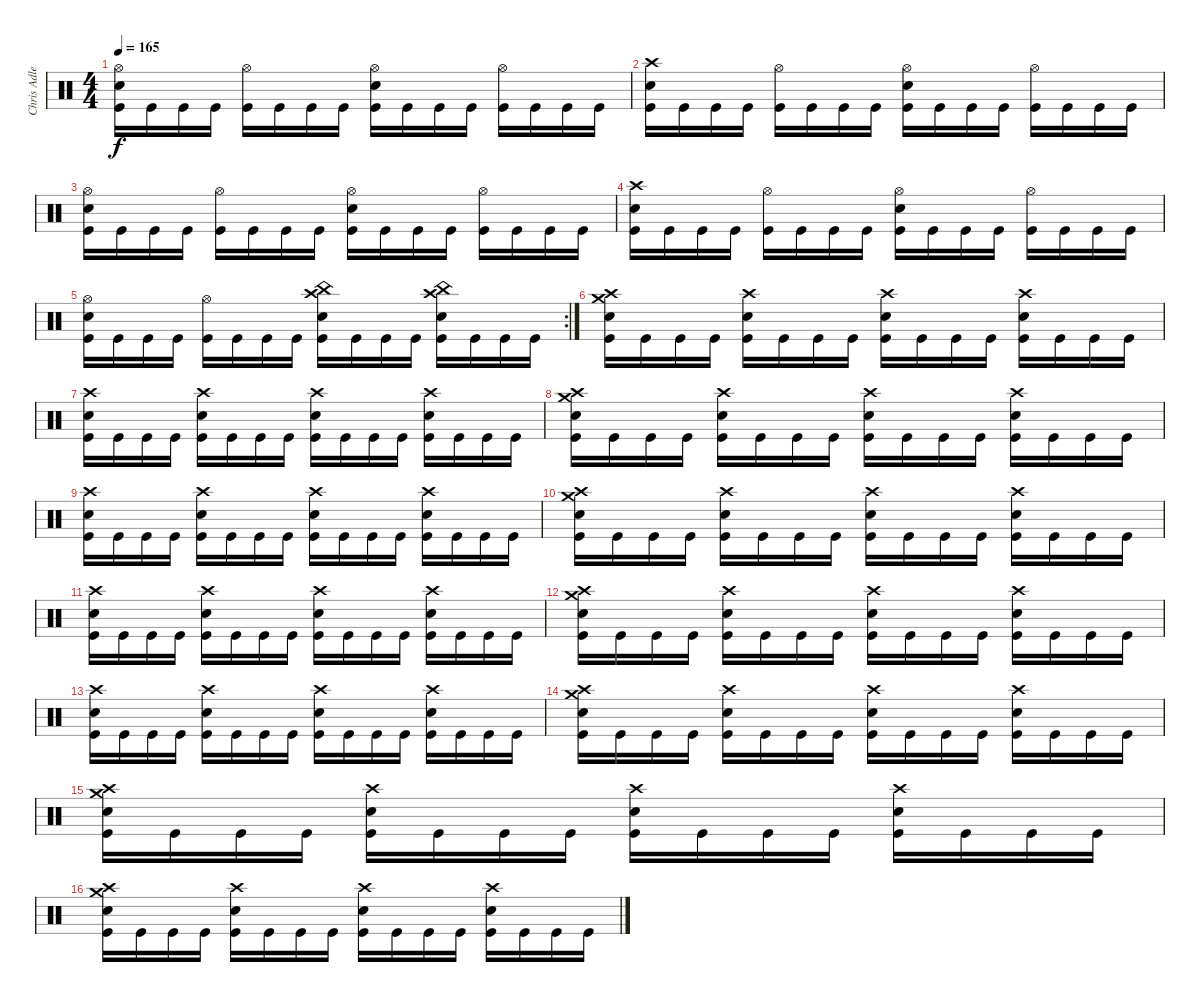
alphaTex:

\track ("Chris Adler" "Chris Adle") {instrument percussion}
\staff {score}
\articulation defaults
\ts (4 4)
\tempo 165
\clef neutral
\ks c
("Hi-Hat (open)" "Electric Snare (hit)" "Kick (hit)").16{dy f} "Kick (hit)".16 "Kick (hit)".16 "Kick (hit)".16 ("Hi-Hat (open)" "Kick (hit)").16 "Kick (hit)".16 "Kick (hit)".16 "Kick (hit)".16 ("Hi-Hat (open)" "Electric Snare (hit)" "Kick (hit)").16 "Kick (hit)".16 "Kick (hit)".16 "Kick (hit)".16 ("Hi-Hat (open)" "Kick (hit)").16 "Kick (hit)".16 "Kick (hit)".16 "Kick (hit)".16 |
("Crash high (hit)" "Electric Snare (hit)" "Kick (hit)").16 "Kick (hit)".16 "Kick (hit)".16 "Kick (hit)".16 ("Hi-Hat (open)" "Kick (hit)").16 "Kick (hit)".16 "Kick (hit)".16 "Kick (hit)".16 ("Hi-Hat (open)" "Electric Snare (hit)" "Kick (hit)").16 "Kick (hit)".16 "Kick (hit)".16 "Kick (hit)".16 ("Hi-Hat (open)" "Kick (hit)").16 "Kick (hit)".16 "Kick (hit)".16 "Kick (hit)".16 |
("Hi-Hat (open)" "Electric Snare (hit)" "Kick (hit)").16 "Kick (hit)".16 "Kick (hit)".16 "Kick (hit)".16 ("Hi-Hat (open)" "Kick (hit)").16 "Kick (hit)".16 "Kick (hit)".16 "Kick (hit)".16 ("Hi-Hat (open)" "Electric Snare (hit)" "Kick (hit)").16 "Kick (hit)".16 "Kick (hit)".16 "Kick (hit)".16 ("Hi-Hat (open)" "Kick (hit)").16 "Kick (hit)".16 "Kick (hit)".16 "Kick (hit)".16 |
("Crash high (hit)" "Electric Snare (hit)" "Kick (hit)").16 "Kick (hit)".16 "Kick (hit)".16 "Kick (hit)".16 ("Hi-Hat (open)" "Kick (hit)").16 "Kick (hit)".16 "Kick (hit)".16 "Kick (hit)".16 ("Hi-Hat (open)" "Electric Snare (hit)" "Kick (hit)").16 "Kick (hit)".16 "Kick (hit)".16 "Kick (hit)".16 ("Hi-Hat (open)" "Kick (hit)").16 "Kick (hit)".16 "Kick (hit)".16 "Kick (hit)".16 |
\rc 2
("Hi-Hat (open)" "Electric Snare (hit)" "Kick (hit)").16 "Kick (hit)".16 "Kick (hit)".16 "Kick (hit)".16 ("Hi-Hat (open)" "Kick (hit)").16 "Kick (hit)".16 "Kick (hit)".16 "Kick (hit)".16 ("Crash high (hit)" "China (hit)" "Electric Snare (hit)" "Kick (hit)").16 "Kick (hit)".16 "Kick (hit)".16 "Kick (hit)".16 ("Crash high (hit)" "China (hit)" "Electric Snare (hit)" "Kick (hit)").16 "Kick (hit)".16 "Kick (hit)".16 "Kick (hit)".16 |
("Crash high (hit)" "Electric Snare (hit)" "Crash medium (hit)" "Kick (hit)").16 "Kick (hit)".16 "Kick (hit)".16 "Kick (hit)".16 ("Crash high (hit)" "Electric Snare (hit)" "Kick (hit)").16 "Kick (hit)".16 "Kick (hit)".16 "Kick (hit)".16 ("Crash high (hit)" "Electric Snare (hit)" "Kick (hit)").16 "Kick (hit)".16 "Kick (hit)".16 "Kick (hit)".16 ("Crash high (hit)" "Electric Snare (hit)" "Kick (hit)").16 "Kick (hit)".16 "Kick (hit)".16 "Kick (hit)".16 |
("Crash high (hit)" "Electric Snare (hit)" "Kick (hit)").16 "Kick (hit)".16 "Kick (hit)".16 "Kick (hit)".16 ("Crash high (hit)" "Electric Snare (hit)" "Kick (hit)").16 "Kick (hit)".16 "Kick (hit)".16 "Kick (hit)".16 ("Crash high (hit)" "Electric Snare (hit)" "Kick (hit)").16 "Kick (hit)".16 "Kick (hit)".16 "Kick (hit)".16 ("Crash high (hit)" "Electric Snare (hit)" "Kick (hit)").16 "Kick (hit)".16 "Kick (hit)".16 "Kick (hit)".16 |
("Crash high (hit)" "Electric Snare (hit)" "Crash medium (hit)" "Kick (hit)").16 "Kick (hit)".16 "Kick (hit)".16 "Kick (hit)".16 ("Crash high (hit)" "Electric Snare (hit)" "Kick (hit)").16 "Kick (hit)".16 "Kick (hit)".16 "Kick (hit)".16 ("Crash high (hit)" "Electric Snare (hit)" "Kick (hit)").16 "Kick (hit)".16 "Kick (hit)".16 "Kick (hit)".16 ("Crash high (hit)" "Electric Snare (hit)" "Kick (hit)").16 "Kick (hit)".16 "Kick (hit)".16 "Kick (hit)".16 |
("Crash high (hit)" "Electric Snare (hit)" "Kick (hit)").16 "Kick (hit)".16 "Kick (hit)".16 "Kick (hit)".16 ("Crash high (hit)" "Electric Snare (hit)" "Kick (hit)").16 "Kick (hit)".16 "Kick (hit)".16 "Kick (hit)".16 ("Crash high (hit)" "Electric Snare (hit)" "Kick (hit)").16 "Kick (hit)".16 "Kick (hit)".16 "Kick (hit)".16 ("Crash high (hit)" "Electric Snare (hit)" "Kick (hit)").16 "Kick (hit)".16 "Kick (hit)".16 "Kick (hit)".16 |
("Crash high (hit)" "Electric Snare (hit)" "Crash medium (hit)" "Kick (hit)").16 "Kick (hit)".16 "Kick (hit)".16 "Kick (hit)".16 ("Crash high (hit)" "Electric Snare (hit)" "Kick (hit)").16 "Kick (hit)".16 "Kick (hit)".16 "Kick (hit)".16 ("Crash high (hit)" "Electric Snare (hit)" "Kick (hit)").16 "Kick (hit)".16 "Kick (hit)".16 "Kick (hit)".16 ("Crash high (hit)" "Electric Snare (hit)" "Kick (hit)").16 "Kick (hit)".16 "Kick (hit)".16 "Kick (hit)".16 |
("Crash high (hit)" "Electric Snare (hit)" "Kick (hit)").16 "Kick (hit)".16 "Kick (hit)".16 "Kick (hit)".16 ("Crash high (hit)" "Electric Snare (hit)" "Kick (hit)").16 "Kick (hit)".16 "Kick (hit)".16 "Kick (hit)".16 ("Crash high (hit)" "Electric Snare (hit)" "Kick (hit)").16 "Kick (hit)".16 "Kick (hit)".16 "Kick (hit)".16 ("Crash high (hit)" "Electric Snare (hit)" "Kick (hit)").16 "Kick (hit)".16 "Kick (hit)".16 "Kick (hit)".16 |
("Crash high (hit)" "Electric Snare (hit)" "Crash medium (hit)" "Kick (hit)").16 "Kick (hit)".16 "Kick (hit)".16 "Kick (hit)".16 ("Crash high (hit)" "Electric Snare (hit)" "Kick (hit)").16 "Kick (hit)".16 "Kick (hit)".16 "Kick (hit)".16 ("Crash high (hit)" "Electric Snare (hit)" "Kick (hit)").16 "Kick (hit)".16 "Kick (hit)".16 "Kick (hit)".16 ("Crash high (hit)" "Electric Snare (hit)" "Kick (hit)").16 "Kick (hit)".16 "Kick (hit)".16 "Kick (hit)".16 |
("Crash high (hit)" "Electric Snare (hit)" "Kick (hit)").16 "Kick (hit)".16 "Kick (hit)".16 "Kick (hit)".16 ("Crash high (hit)" "Electric Snare (hit)" "Kick (hit)").16 "Kick (hit)".16 "Kick (hit)".16 "Kick (hit)".16 ("Crash high (hit)" "Electric Snare (hit)" "Kick (hit)").16 "Kick (hit)".16 "Kick (hit)".16 "Kick (hit)".16 ("Crash high (hit)" "Electric Snare (hit)" "Kick (hit)").16 "Kick (hit)".16 "Kick (hit)".16 "Kick (hit)".16 |
("Crash high (hit)" "Electric Snare (hit)" "Crash medium (hit)" "Kick (hit)").16 "Kick (hit)".16 "Kick (hit)".16 "Kick (hit)".16 ("Crash high (hit)" "Electric Snare (hit)" "Kick (hit)").16 "Kick (hit)".16 "Kick (hit)".16 "Kick (hit)".16 ("Crash high (hit)" "Electric Snare (hit)" "Kick (hit)").16 "Kick (hit)".16 "Kick (hit)".16 "Kick (hit)".16 ("Crash high (hit)" "Electric Snare (hit)" "Kick (hit)").16 "Kick (hit)".16 "Kick (hit)".16 "Kick (hit)".16 |
("Crash high (hit)" "Electric Snare (hit)" "Crash medium (hit)" "Kick (hit)").16 "Kick (hit)".16 "Kick (hit)".16 "Kick (hit)".16 ("Crash high (hit)" "Electric Snare (hit)" "Kick (hit)").16 "Kick (hit)".16 "Kick (hit)".16 "Kick (hit)".16 ("Crash high (hit)" "Electric Snare (hit)" "Kick (hit)").16 "Kick (hit)".16 "Kick (hit)".16 "Kick (hit)".16 ("Crash high (hit)" "Electric Snare (hit)" "Kick (hit)").16 "Kick (hit)".16 "Kick (hit)".16 "Kick (hit)".16 |
("Crash high (hit)" "Electric Snare (hit)" "Crash medium (hit)" "Kick (hit)").16 "Kick (hit)".16 "Kick (hit)".16 "Kick (hit)".16 ("Crash high (hit)" "Electric Snare (hit)" "Kick (hit)").16 "Kick (hit)".16 "Kick (hit)".16 "Kick (hit)".16 ("Crash high (hit)" "Electric Snare (hit)" "Kick (hit)").16 "Kick (hit)".16 "Kick (hit)".16 "Kick (hit)".16 ("Crash high (hit)" "Electric Snare (hit)" "Kick (hit)").16 "Kick (hit)".16 "Kick (hit)".16 "Kick (hit)".16
